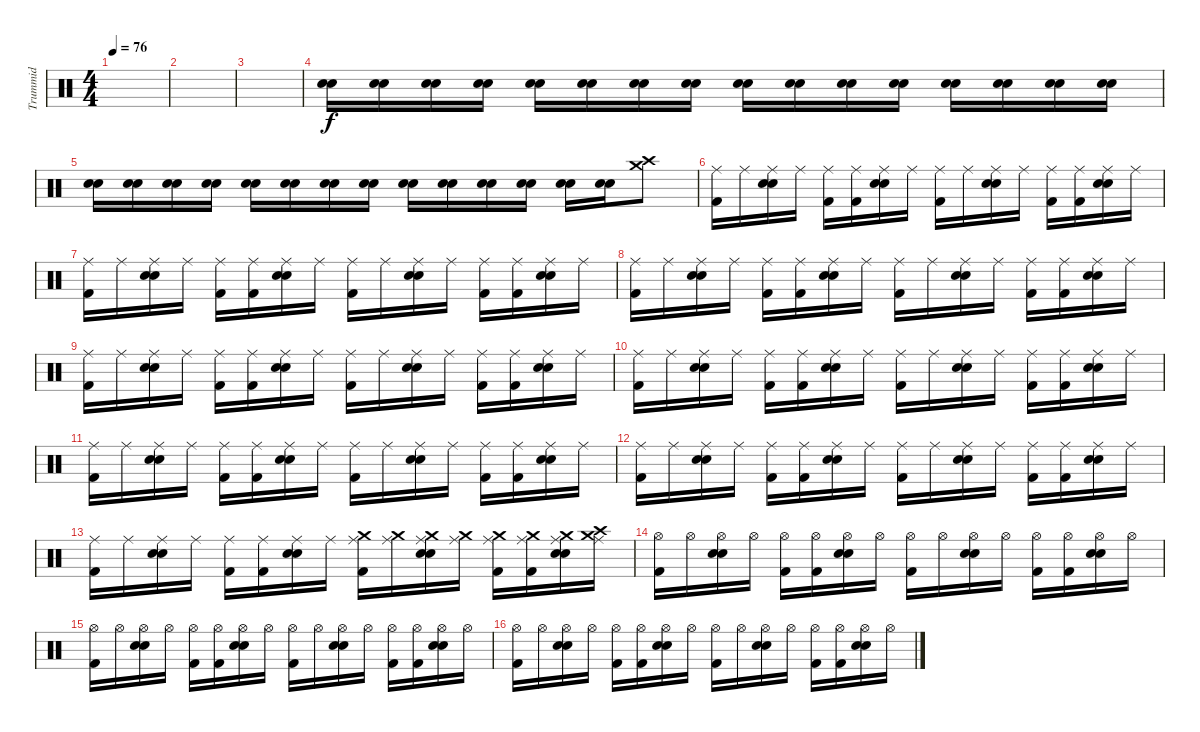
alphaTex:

\track ("Trummid" "Trummid") {instrument percussion}
\staff {score}
\articulation defaults
\ts (4 4)
\tempo 76
\clef neutral
\ks c
|
|
|
("Snare (hit) 2" "Electric Snare (hit)").16 ("Snare (hit) 2" "Electric Snare (hit)").16 ("Snare (hit) 2" "Electric Snare (hit)").16 ("Snare (hit) 2" "Electric Snare (hit)").16 ("Snare (hit) 2" "Electric Snare (hit)").16 ("Snare (hit) 2" "Electric Snare (hit)").16 ("Snare (hit) 2" "Electric Snare (hit)").16 ("Snare (hit) 2" "Electric Snare (hit)").16 ("Snare (hit) 2" "Electric Snare (hit)").16 ("Snare (hit) 2" "Electric Snare (hit)").16 ("Snare (hit) 2" "Electric Snare (hit)").16 ("Snare (hit) 2" "Electric Snare (hit)").16 ("Snare (hit) 2" "Electric Snare (hit)").16 ("Snare (hit) 2" "Electric Snare (hit)").16 ("Snare (hit) 2" "Electric Snare (hit)").16 ("Snare (hit) 2" "Electric Snare (hit)").16 |
("Snare (hit) 2" "Electric Snare (hit)").16 ("Snare (hit) 2" "Electric Snare (hit)").16 ("Snare (hit) 2" "Electric Snare (hit)").16 ("Snare (hit) 2" "Electric Snare (hit)").16 ("Snare (hit) 2" "Electric Snare (hit)").16 ("Snare (hit) 2" "Electric Snare (hit)").16 ("Snare (hit) 2" "Electric Snare (hit)").16 ("Snare (hit) 2" "Electric Snare (hit)").16 ("Snare (hit) 2" "Electric Snare (hit)").16 ("Snare (hit) 2" "Electric Snare (hit)").16 ("Snare (hit) 2" "Electric Snare (hit)").16 ("Snare (hit) 2" "Electric Snare (hit)").16 ("Snare (hit) 2" "Electric Snare (hit)").16 ("Snare (hit) 2" "Electric Snare (hit)").16 ("Crash medium (hit)" "Crash high (hit)").8 |
("Ride (middle)" "Kick (hit) 2").16 "Ride (middle)".16 ("Ride (middle)" "Electric Snare (hit)" "Snare (hit) 2").16 "Ride (middle)".16 ("Ride (middle)" "Kick (hit) 2").16 ("Ride (middle)" "Kick (hit) 2").16 ("Ride (middle)" "Electric Snare (hit)" "Snare (hit) 2").16 "Ride (middle)".16 ("Ride (middle)" "Kick (hit) 2").16 "Ride (middle)".16 ("Ride (middle)" "Electric Snare (hit)" "Snare (hit) 2").16 "Ride (middle)".16 ("Ride (middle)" "Kick (hit) 2").16 ("Ride (middle)" "Kick (hit) 2").16 ("Ride (middle)" "Electric Snare (hit)" "Snare (hit) 2").16 "Ride (middle)".16 |
("Ride (middle)" "Kick (hit) 2").16 "Ride (middle)".16 ("Ride (middle)" "Electric Snare (hit)" "Snare (hit) 2").16 "Ride (middle)".16 ("Ride (middle)" "Kick (hit) 2").16 ("Ride (middle)" "Kick (hit) 2").16 ("Ride (middle)" "Electric Snare (hit)" "Snare (hit) 2").16 "Ride (middle)".16 ("Ride (middle)" "Kick (hit) 2").16 "Ride (middle)".16 ("Ride (middle)" "Electric Snare (hit)" "Snare (hit) 2").16 "Ride (middle)".16 ("Ride (middle)" "Kick (hit) 2").16 ("Ride (middle)" "Kick (hit) 2").16 ("Ride (middle)" "Electric Snare (hit)" "Snare (hit) 2").16 "Ride (middle)".16 |
("Ride (middle)" "Kick (hit) 2").16 "Ride (middle)".16 ("Ride (middle)" "Electric Snare (hit)" "Snare (hit) 2").16 "Ride (middle)".16 ("Ride (middle)" "Kick (hit) 2").16 ("Ride (middle)" "Kick (hit) 2").16 ("Ride (middle)" "Electric Snare (hit)" "Snare (hit) 2").16 "Ride (middle)".16 ("Ride (middle)" "Kick (hit) 2").16 "Ride (middle)".16 ("Ride (middle)" "Electric Snare (hit)" "Snare (hit) 2").16 "Ride (middle)".16 ("Ride (middle)" "Kick (hit) 2").16 ("Ride (middle)" "Kick (hit) 2").16 ("Ride (middle)" "Electric Snare (hit)" "Snare (hit) 2").16 "Ride (middle)".16 |
("Ride (middle)" "Kick (hit) 2").16 "Ride (middle)".16 ("Ride (middle)" "Electric Snare (hit)" "Snare (hit) 2").16 "Ride (middle)".16 ("Ride (middle)" "Kick (hit) 2").16 ("Ride (middle)" "Kick (hit) 2").16 ("Ride (middle)" "Electric Snare (hit)" "Snare (hit) 2").16 "Ride (middle)".16 ("Ride (middle)" "Kick (hit) 2").16 "Ride (middle)".16 ("Ride (middle)" "Electric Snare (hit)" "Snare (hit) 2").16 "Ride (middle)".16 ("Ride (middle)" "Kick (hit) 2").16 ("Ride (middle)" "Kick (hit) 2").16 ("Ride (middle)" "Electric Snare (hit)" "Snare (hit) 2").16 "Ride (middle)".16 |
("Ride (middle)" "Kick (hit) 2").16 "Ride (middle)".16 ("Ride (middle)" "Electric Snare (hit)" "Snare (hit) 2").16 "Ride (middle)".16 ("Ride (middle)" "Kick (hit) 2").16 ("Ride (middle)" "Kick (hit) 2").16 ("Ride (middle)" "Electric Snare (hit)" "Snare (hit) 2").16 "Ride (middle)".16 ("Ride (middle)" "Kick (hit) 2").16 "Ride (middle)".16 ("Ride (middle)" "Electric Snare (hit)" "Snare (hit) 2").16 "Ride (middle)".16 ("Ride (middle)" "Kick (hit) 2").16 ("Ride (middle)" "Kick (hit) 2").16 ("Ride (middle)" "Electric Snare (hit)" "Snare (hit) 2").16 "Ride (middle)".16 |
("Ride (middle)" "Kick (hit) 2").16 "Ride (middle)".16 ("Ride (middle)" "Electric Snare (hit)" "Snare (hit) 2").16 "Ride (middle)".16 ("Ride (middle)" "Kick (hit) 2").16 ("Ride (middle)" "Kick (hit) 2").16 ("Ride (middle)" "Electric Snare (hit)" "Snare (hit) 2").16 "Ride (middle)".16 ("Ride (middle)" "Kick (hit) 2").16 "Ride (middle)".16 ("Ride (middle)" "Electric Snare (hit)" "Snare (hit) 2").16 "Ride (middle)".16 ("Ride (middle)" "Kick (hit) 2").16 ("Ride (middle)" "Kick (hit) 2").16 ("Ride (middle)" "Electric Snare (hit)" "Snare (hit) 2").16 "Ride (middle)".16 |
("Ride (middle)" "Kick (hit) 2").16 "Ride (middle)".16 ("Ride (middle)" "Electric Snare (hit)" "Snare (hit) 2").16 "Ride (middle)".16 ("Ride (middle)" "Kick (hit) 2").16 ("Ride (middle)" "Kick (hit) 2").16 ("Ride (middle)" "Electric Snare (hit)" "Snare (hit) 2").16 "Ride (middle)".16 ("Ride (middle)" "Kick (hit) 2").16 "Ride (middle)".16 ("Ride (middle)" "Electric Snare (hit)" "Snare (hit) 2").16 "Ride (middle)".16 ("Ride (middle)" "Kick (hit) 2").16 ("Ride (middle)" "Kick (hit) 2").16 ("Ride (middle)" "Electric Snare (hit)" "Snare (hit) 2").16 "Ride (middle)".16 |
("Ride (middle)" "Kick (hit) 2").16 "Ride (middle)".16 ("Ride (middle)" "Electric Snare (hit)" "Snare (hit) 2").16 "Ride (middle)".16 ("Ride (middle)" "Kick (hit) 2").16 ("Ride (middle)" "Kick (hit) 2").16 ("Ride (middle)" "Electric Snare (hit)" "Snare (hit) 2").16 "Ride (middle)".16 ("Ride (middle)" "Crash medium (hit)" "Kick (hit) 2").16 ("Ride (middle)" "Crash medium (hit)").16 ("Ride (middle)" "Crash medium (hit)" "Electric Snare (hit)" "Snare (hit) 2").16 ("Ride (middle)" "Crash medium (hit)").16 ("Ride (middle)" "Crash medium (hit)" "Kick (hit) 2").16 ("Ride (middle)" "Crash medium (hit)" "Kick (hit) 2").16 ("Ride (middle)" "Crash medium (hit)" "Electric Snare (hit)" "Snare (hit) 2").16 ("Ride (middle)" "Crash medium (hit)" "Crash high (hit)").16 |
("Hi-Hat (open)" "Kick (hit) 2").16 "Hi-Hat (open)".16 ("Hi-Hat (open)" "Electric Snare (hit)" "Snare (hit) 2").16 "Hi-Hat (open)".16 ("Hi-Hat (open)" "Kick (hit) 2").16 ("Hi-Hat (open)" "Kick (hit) 2").16 ("Hi-Hat (open)" "Electric Snare (hit)" "Snare (hit) 2").16 "Hi-Hat (open)".16 ("Hi-Hat (open)" "Kick (hit) 2").16 "Hi-Hat (open)".16 ("Hi-Hat (open)" "Electric Snare (hit)" "Snare (hit) 2").16 "Hi-Hat (open)".16 ("Hi-Hat (open)" "Kick (hit) 2").16 ("Hi-Hat (open)" "Kick (hit) 2").16 ("Hi-Hat (open)" "Electric Snare (hit)" "Snare (hit) 2").16 "Hi-Hat (open)".16 |
("Hi-Hat (open)" "Kick (hit) 2").16 "Hi-Hat (open)".16 ("Hi-Hat (open)" "Electric Snare (hit)" "Snare (hit) 2").16 "Hi-Hat (open)".16 ("Hi-Hat (open)" "Kick (hit) 2").16 ("Hi-Hat (open)" "Kick (hit) 2").16 ("Hi-Hat (open)" "Electric Snare (hit)" "Snare (hit) 2").16 "Hi-Hat (open)".16 ("Hi-Hat (open)" "Kick (hit) 2").16 "Hi-Hat (open)".16 ("Hi-Hat (open)" "Electric Snare (hit)" "Snare (hit) 2").16 "Hi-Hat (open)".16 ("Hi-Hat (open)" "Kick (hit) 2").16 ("Hi-Hat (open)" "Kick (hit) 2").16 ("Hi-Hat (open)" "Electric Snare (hit)" "Snare (hit) 2").16 "Hi-Hat (open)".16 |
("Hi-Hat (open)" "Kick (hit) 2").16 "Hi-Hat (open)".16 ("Hi-Hat (open)" "Electric Snare (hit)" "Snare (hit) 2").16 "Hi-Hat (open)".16 ("Hi-Hat (open)" "Kick (hit) 2").16 ("Hi-Hat (open)" "Kick (hit) 2").16 ("Hi-Hat (open)" "Electric Snare (hit)" "Snare (hit) 2").16 "Hi-Hat (open)".16 ("Hi-Hat (open)" "Kick (hit) 2").16 "Hi-Hat (open)".16 ("Hi-Hat (open)" "Electric Snare (hit)" "Snare (hit) 2").16 "Hi-Hat (open)".16 ("Hi-Hat (open)" "Kick (hit) 2").16 ("Hi-Hat (open)" "Kick (hit) 2").16 ("Hi-Hat (open)" "Electric Snare (hit)" "Snare (hit) 2").16 "Hi-Hat (open)".16
